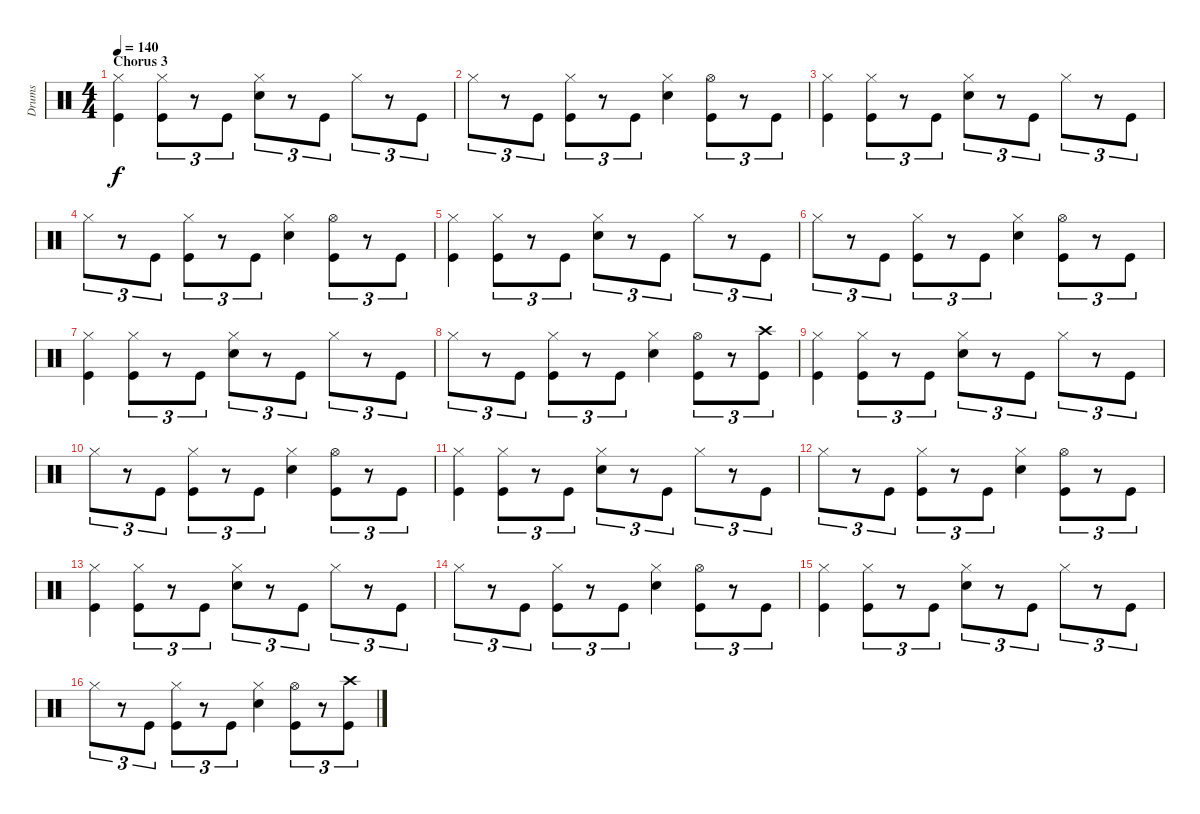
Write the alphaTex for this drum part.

\track ("Drums" "Drums") {instrument percussion}
\staff {score}
\articulation defaults
\ts (4 4)
\section ("" "Chorus 3")
\tempo 140
\clef neutral
\ks c
("Hi-Hat (closed)" "Kick (hit)").4{dy f} ("Hi-Hat (closed)" "Kick (hit)").8{tu (3 2)} r.8{tu (3 2)} "Kick (hit)".8{tu (3 2)} ("Hi-Hat (closed)" "Electric Snare (hit)").8{tu (3 2)} r.8{tu (3 2)} "Kick (hit)".8{tu (3 2)} "Hi-Hat (closed)".8{tu (3 2)} r.8{tu (3 2)} "Kick (hit)".8{tu (3 2)} |
"Hi-Hat (closed)".8{tu (3 2)} r.8{tu (3 2)} "Kick (hit)".8{tu (3 2)} ("Hi-Hat (closed)" "Kick (hit)").8{tu (3 2)} r.8{tu (3 2)} "Kick (hit)".8{tu (3 2)} ("Hi-Hat (closed)" "Electric Snare (hit)").4 ("Hi-Hat (open)" "Kick (hit)").8{tu (3 2)} r.8{tu (3 2)} "Kick (hit)".8{tu (3 2)} |
("Hi-Hat (closed)" "Kick (hit)").4 ("Hi-Hat (closed)" "Kick (hit)").8{tu (3 2)} r.8{tu (3 2)} "Kick (hit)".8{tu (3 2)} ("Hi-Hat (closed)" "Electric Snare (hit)").8{tu (3 2)} r.8{tu (3 2)} "Kick (hit)".8{tu (3 2)} "Hi-Hat (closed)".8{tu (3 2)} r.8{tu (3 2)} "Kick (hit)".8{tu (3 2)} |
"Hi-Hat (closed)".8{tu (3 2)} r.8{tu (3 2)} "Kick (hit)".8{tu (3 2)} ("Hi-Hat (closed)" "Kick (hit)").8{tu (3 2)} r.8{tu (3 2)} "Kick (hit)".8{tu (3 2)} ("Hi-Hat (closed)" "Electric Snare (hit)").4 ("Hi-Hat (open)" "Kick (hit)").8{tu (3 2)} r.8{tu (3 2)} "Kick (hit)".8{tu (3 2)} |
("Hi-Hat (closed)" "Kick (hit)").4 ("Hi-Hat (closed)" "Kick (hit)").8{tu (3 2)} r.8{tu (3 2)} "Kick (hit)".8{tu (3 2)} ("Hi-Hat (closed)" "Electric Snare (hit)").8{tu (3 2)} r.8{tu (3 2)} "Kick (hit)".8{tu (3 2)} "Hi-Hat (closed)".8{tu (3 2)} r.8{tu (3 2)} "Kick (hit)".8{tu (3 2)} |
"Hi-Hat (closed)".8{tu (3 2)} r.8{tu (3 2)} "Kick (hit)".8{tu (3 2)} ("Hi-Hat (closed)" "Kick (hit)").8{tu (3 2)} r.8{tu (3 2)} "Kick (hit)".8{tu (3 2)} ("Hi-Hat (closed)" "Electric Snare (hit)").4 ("Hi-Hat (open)" "Kick (hit)").8{tu (3 2)} r.8{tu (3 2)} "Kick (hit)".8{tu (3 2)} |
("Hi-Hat (closed)" "Kick (hit)").4 ("Hi-Hat (closed)" "Kick (hit)").8{tu (3 2)} r.8{tu (3 2)} "Kick (hit)".8{tu (3 2)} ("Hi-Hat (closed)" "Electric Snare (hit)").8{tu (3 2)} r.8{tu (3 2)} "Kick (hit)".8{tu (3 2)} "Hi-Hat (closed)".8{tu (3 2)} r.8{tu (3 2)} "Kick (hit)".8{tu (3 2)} |
"Hi-Hat (closed)".8{tu (3 2)} r.8{tu (3 2)} "Kick (hit)".8{tu (3 2)} ("Hi-Hat (closed)" "Kick (hit)").8{tu (3 2)} r.8{tu (3 2)} "Kick (hit)".8{tu (3 2)} ("Hi-Hat (closed)" "Electric Snare (hit)").4 ("Hi-Hat (open)" "Kick (hit)").8{tu (3 2)} r.8{tu (3 2)} ("Crash high (hit)" "Kick (hit)").8{tu (3 2)} |
("Hi-Hat (closed)" "Kick (hit)").4 ("Hi-Hat (closed)" "Kick (hit)").8{tu (3 2)} r.8{tu (3 2)} "Kick (hit)".8{tu (3 2)} ("Hi-Hat (closed)" "Electric Snare (hit)").8{tu (3 2)} r.8{tu (3 2)} "Kick (hit)".8{tu (3 2)} "Hi-Hat (closed)".8{tu (3 2)} r.8{tu (3 2)} "Kick (hit)".8{tu (3 2)} |
"Hi-Hat (closed)".8{tu (3 2)} r.8{tu (3 2)} "Kick (hit)".8{tu (3 2)} ("Hi-Hat (closed)" "Kick (hit)").8{tu (3 2)} r.8{tu (3 2)} "Kick (hit)".8{tu (3 2)} ("Hi-Hat (closed)" "Electric Snare (hit)").4 ("Hi-Hat (open)" "Kick (hit)").8{tu (3 2)} r.8{tu (3 2)} "Kick (hit)".8{tu (3 2)} |
("Hi-Hat (closed)" "Kick (hit)").4 ("Hi-Hat (closed)" "Kick (hit)").8{tu (3 2)} r.8{tu (3 2)} "Kick (hit)".8{tu (3 2)} ("Hi-Hat (closed)" "Electric Snare (hit)").8{tu (3 2)} r.8{tu (3 2)} "Kick (hit)".8{tu (3 2)} "Hi-Hat (closed)".8{tu (3 2)} r.8{tu (3 2)} "Kick (hit)".8{tu (3 2)} |
"Hi-Hat (closed)".8{tu (3 2)} r.8{tu (3 2)} "Kick (hit)".8{tu (3 2)} ("Hi-Hat (closed)" "Kick (hit)").8{tu (3 2)} r.8{tu (3 2)} "Kick (hit)".8{tu (3 2)} ("Hi-Hat (closed)" "Electric Snare (hit)").4 ("Hi-Hat (open)" "Kick (hit)").8{tu (3 2)} r.8{tu (3 2)} "Kick (hit)".8{tu (3 2)} |
("Hi-Hat (closed)" "Kick (hit)").4 ("Hi-Hat (closed)" "Kick (hit)").8{tu (3 2)} r.8{tu (3 2)} "Kick (hit)".8{tu (3 2)} ("Hi-Hat (closed)" "Electric Snare (hit)").8{tu (3 2)} r.8{tu (3 2)} "Kick (hit)".8{tu (3 2)} "Hi-Hat (closed)".8{tu (3 2)} r.8{tu (3 2)} "Kick (hit)".8{tu (3 2)} |
"Hi-Hat (closed)".8{tu (3 2)} r.8{tu (3 2)} "Kick (hit)".8{tu (3 2)} ("Hi-Hat (closed)" "Kick (hit)").8{tu (3 2)} r.8{tu (3 2)} "Kick (hit)".8{tu (3 2)} ("Hi-Hat (closed)" "Electric Snare (hit)").4 ("Hi-Hat (open)" "Kick (hit)").8{tu (3 2)} r.8{tu (3 2)} "Kick (hit)".8{tu (3 2)} |
("Hi-Hat (closed)" "Kick (hit)").4 ("Hi-Hat (closed)" "Kick (hit)").8{tu (3 2)} r.8{tu (3 2)} "Kick (hit)".8{tu (3 2)} ("Hi-Hat (closed)" "Electric Snare (hit)").8{tu (3 2)} r.8{tu (3 2)} "Kick (hit)".8{tu (3 2)} "Hi-Hat (closed)".8{tu (3 2)} r.8{tu (3 2)} "Kick (hit)".8{tu (3 2)} |
"Hi-Hat (closed)".8{tu (3 2)} r.8{tu (3 2)} "Kick (hit)".8{tu (3 2)} ("Hi-Hat (closed)" "Kick (hit)").8{tu (3 2)} r.8{tu (3 2)} "Kick (hit)".8{tu (3 2)} ("Hi-Hat (closed)" "Electric Snare (hit)").4 ("Hi-Hat (open)" "Kick (hit)").8{tu (3 2)} r.8{tu (3 2)} ("Crash high (hit)" "Kick (hit)").8{tu (3 2)}
